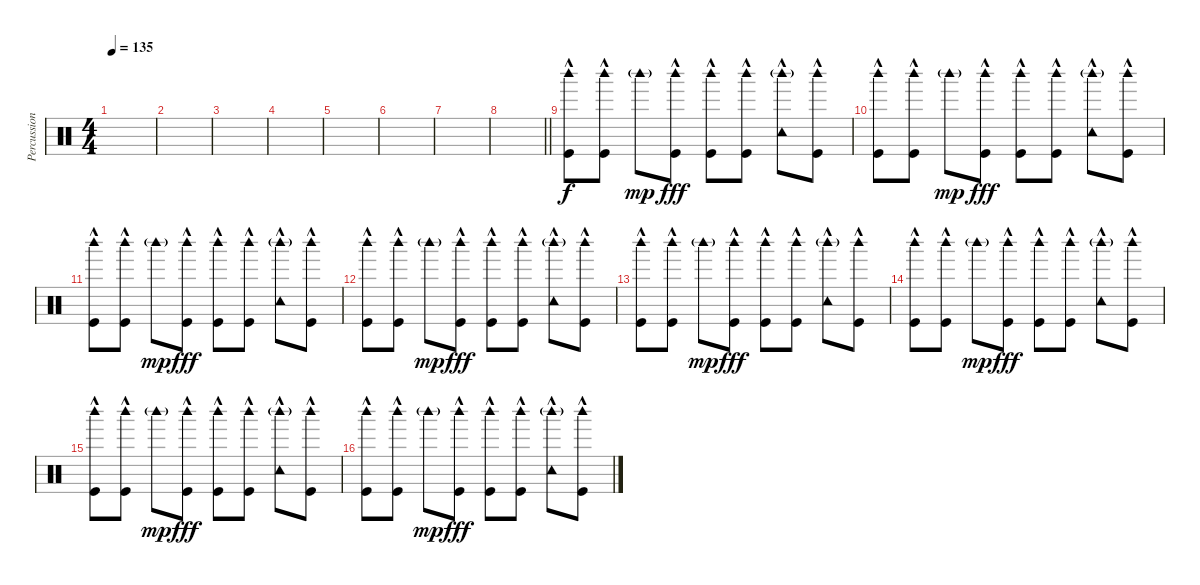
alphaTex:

\track ("Percussions" "Percussion") {instrument percussion}
\staff {score}
\articulation defaults
\ts (4 4)
\tempo 135
\clef neutral
\ks c
|
|
|
|
|
|
|
\barLineRight lightlight
|
("Woodblock high (hit)" "Kick (hit)"{hac}).8 ("Woodblock high (hit)" "Kick (hit)"{hac}).8 "Woodblock high (hit)"{g}.8{dy mp} ("Woodblock high (hit)" "Kick (hit)"{hac}).8{dy fff} ("Woodblock high (hit)" "Kick (hit)"{hac}).8 ("Woodblock high (hit)" "Kick (hit)"{hac}).8 ("Woodblock high (hit)"{g} "Tambourine (hit)"{hac}).8 ("Woodblock high (hit)" "Kick (hit)"{hac}).8 |
("Woodblock high (hit)" "Kick (hit)"{hac}).8 ("Woodblock high (hit)" "Kick (hit)"{hac}).8 "Woodblock high (hit)"{g}.8{dy mp} ("Woodblock high (hit)" "Kick (hit)"{hac}).8{dy fff} ("Woodblock high (hit)" "Kick (hit)"{hac}).8 ("Woodblock high (hit)" "Kick (hit)"{hac}).8 ("Woodblock high (hit)"{g} "Tambourine (hit)"{hac}).8 ("Woodblock high (hit)" "Kick (hit)"{hac}).8 |
("Woodblock high (hit)" "Kick (hit)"{hac}).8 ("Woodblock high (hit)" "Kick (hit)"{hac}).8 "Woodblock high (hit)"{g}.8{dy mp} ("Woodblock high (hit)" "Kick (hit)"{hac}).8{dy fff} ("Woodblock high (hit)" "Kick (hit)"{hac}).8 ("Woodblock high (hit)" "Kick (hit)"{hac}).8 ("Woodblock high (hit)"{g} "Tambourine (hit)"{hac}).8 ("Woodblock high (hit)" "Kick (hit)"{hac}).8 |
("Woodblock high (hit)" "Kick (hit)"{hac}).8 ("Woodblock high (hit)" "Kick (hit)"{hac}).8 "Woodblock high (hit)"{g}.8{dy mp} ("Woodblock high (hit)" "Kick (hit)"{hac}).8{dy fff} ("Woodblock high (hit)" "Kick (hit)"{hac}).8 ("Woodblock high (hit)" "Kick (hit)"{hac}).8 ("Woodblock high (hit)"{g} "Tambourine (hit)"{hac}).8 ("Woodblock high (hit)" "Kick (hit)"{hac}).8 |
("Woodblock high (hit)" "Kick (hit)"{hac}).8 ("Woodblock high (hit)" "Kick (hit)"{hac}).8 "Woodblock high (hit)"{g}.8{dy mp} ("Woodblock high (hit)" "Kick (hit)"{hac}).8{dy fff} ("Woodblock high (hit)" "Kick (hit)"{hac}).8 ("Woodblock high (hit)" "Kick (hit)"{hac}).8 ("Woodblock high (hit)"{g} "Tambourine (hit)"{hac}).8 ("Woodblock high (hit)" "Kick (hit)"{hac}).8 |
("Woodblock high (hit)" "Kick (hit)"{hac}).8 ("Woodblock high (hit)" "Kick (hit)"{hac}).8 "Woodblock high (hit)"{g}.8{dy mp} ("Woodblock high (hit)" "Kick (hit)"{hac}).8{dy fff} ("Woodblock high (hit)" "Kick (hit)"{hac}).8 ("Woodblock high (hit)" "Kick (hit)"{hac}).8 ("Woodblock high (hit)"{g} "Tambourine (hit)"{hac}).8 ("Woodblock high (hit)" "Kick (hit)"{hac}).8 |
("Woodblock high (hit)" "Kick (hit)"{hac}).8 ("Woodblock high (hit)" "Kick (hit)"{hac}).8 "Woodblock high (hit)"{g}.8{dy mp} ("Woodblock high (hit)" "Kick (hit)"{hac}).8{dy fff} ("Woodblock high (hit)" "Kick (hit)"{hac}).8 ("Woodblock high (hit)" "Kick (hit)"{hac}).8 ("Woodblock high (hit)"{g} "Tambourine (hit)"{hac}).8 ("Woodblock high (hit)" "Kick (hit)"{hac}).8 |
("Woodblock high (hit)" "Kick (hit)"{hac}).8 ("Woodblock high (hit)" "Kick (hit)"{hac}).8 "Woodblock high (hit)"{g}.8{dy mp} ("Woodblock high (hit)" "Kick (hit)"{hac}).8{dy fff} ("Woodblock high (hit)" "Kick (hit)"{hac}).8 ("Woodblock high (hit)" "Kick (hit)"{hac}).8 ("Woodblock high (hit)"{g} "Tambourine (hit)"{hac}).8 ("Woodblock high (hit)" "Kick (hit)"{hac}).8
